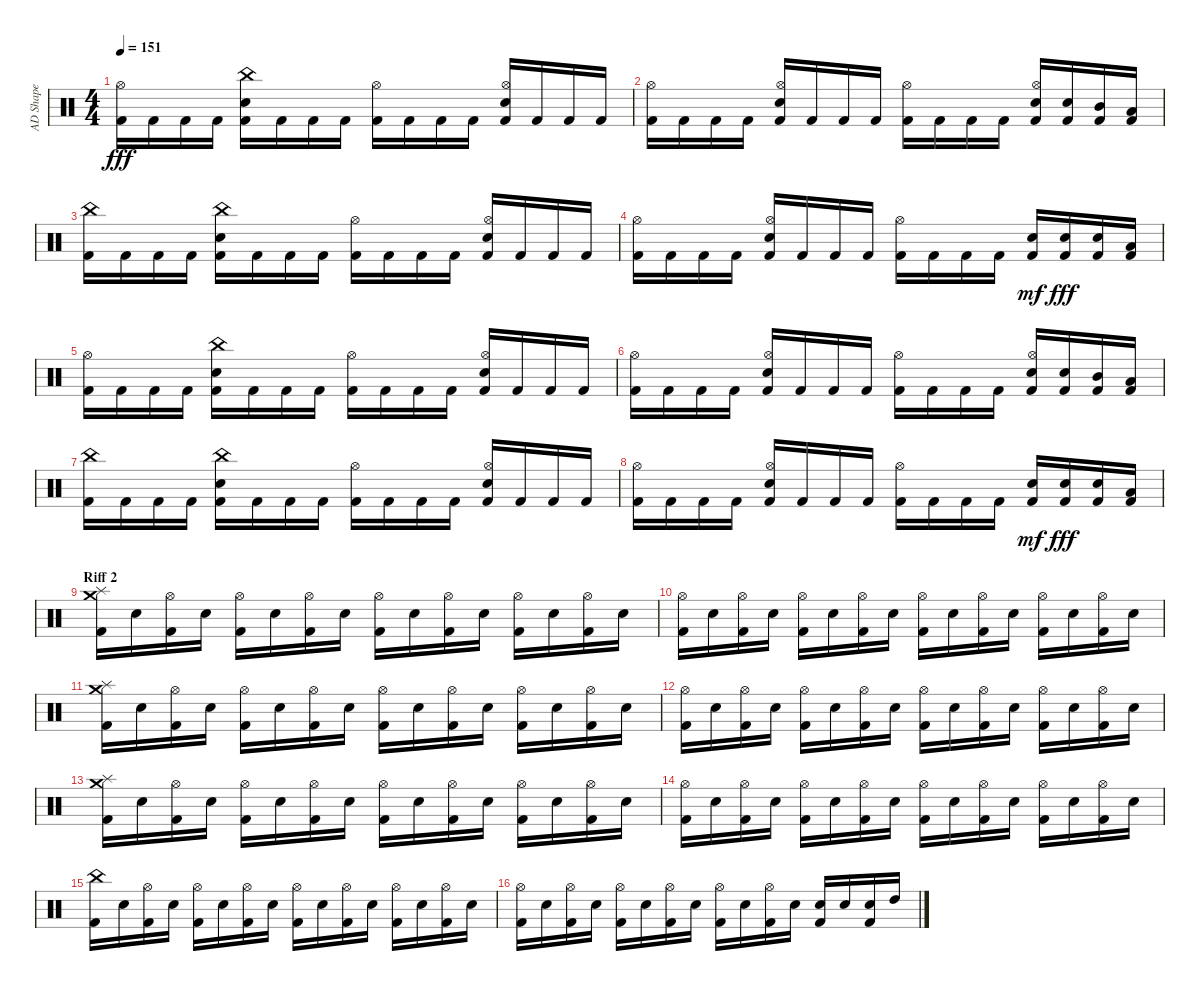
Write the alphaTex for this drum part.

\track ("AD Shape" "AD Shape") {instrument percussion}
\staff {score}
\articulation defaults
\ts (4 4)
\tempo 151
\clef neutral
\ks c
("Kick (hit) 2" "Hi-Hat (open)").16{dy fff} "Kick (hit) 2".16 "Kick (hit) 2".16 "Kick (hit) 2".16 ("Kick (hit) 2" "Snare (hit) 2" "China (hit)").16 "Kick (hit) 2".16 "Kick (hit) 2".16 "Kick (hit) 2".16 ("Kick (hit) 2" "Hi-Hat (open)").16 "Kick (hit) 2".16 "Kick (hit) 2".16 "Kick (hit) 2".16 ("Kick (hit) 2" "Snare (hit) 2" "Hi-Hat (open)").16 "Kick (hit) 2".16 "Kick (hit) 2".16 "Kick (hit) 2".16 |
("Kick (hit) 2" "Hi-Hat (open)").16 "Kick (hit) 2".16 "Kick (hit) 2".16 "Kick (hit) 2".16 ("Kick (hit) 2" "Snare (hit) 2" "Hi-Hat (open)").16 "Kick (hit) 2".16 "Kick (hit) 2".16 "Kick (hit) 2".16 ("Kick (hit) 2" "Hi-Hat (open)").16 "Kick (hit) 2".16 "Kick (hit) 2".16 "Kick (hit) 2".16 ("Kick (hit) 2" "Snare (hit) 2" "Hi-Hat (open)").16 ("Kick (hit) 2" "Snare (hit) 2").16 ("Kick (hit) 2" "Mid Tom (hit)").16 ("Kick (hit) 2" "Low Tom (hit)").16 |
("Kick (hit) 2" "China (hit)").16 "Kick (hit) 2".16 "Kick (hit) 2".16 "Kick (hit) 2".16 ("Kick (hit) 2" "Snare (hit) 2" "China (hit)").16 "Kick (hit) 2".16 "Kick (hit) 2".16 "Kick (hit) 2".16 ("Kick (hit) 2" "Hi-Hat (open)").16 "Kick (hit) 2".16 "Kick (hit) 2".16 "Kick (hit) 2".16 ("Kick (hit) 2" "Snare (hit) 2" "Hi-Hat (open)").16 "Kick (hit) 2".16 "Kick (hit) 2".16 "Kick (hit) 2".16 |
("Kick (hit) 2" "Hi-Hat (open)").16 "Kick (hit) 2".16 "Kick (hit) 2".16 "Kick (hit) 2".16 ("Kick (hit) 2" "Snare (hit) 2" "Hi-Hat (open)").16 "Kick (hit) 2".16 "Kick (hit) 2".16 "Kick (hit) 2".16 ("Kick (hit) 2" "Hi-Hat (open)").16 "Kick (hit) 2".16 "Kick (hit) 2".16 "Kick (hit) 2".16 ("Kick (hit) 2" "Snare (hit) 2").16{dy mf} ("Kick (hit) 2" "Snare (hit) 2").16{dy fff} ("Kick (hit) 2" "Snare (hit) 2").16 ("Kick (hit) 2" "Low Tom (hit)").16 |
("Kick (hit) 2" "Hi-Hat (open)").16 "Kick (hit) 2".16 "Kick (hit) 2".16 "Kick (hit) 2".16 ("Kick (hit) 2" "Snare (hit) 2" "China (hit)").16 "Kick (hit) 2".16 "Kick (hit) 2".16 "Kick (hit) 2".16 ("Kick (hit) 2" "Hi-Hat (open)").16 "Kick (hit) 2".16 "Kick (hit) 2".16 "Kick (hit) 2".16 ("Kick (hit) 2" "Snare (hit) 2" "Hi-Hat (open)").16 "Kick (hit) 2".16 "Kick (hit) 2".16 "Kick (hit) 2".16 |
("Kick (hit) 2" "Hi-Hat (open)").16 "Kick (hit) 2".16 "Kick (hit) 2".16 "Kick (hit) 2".16 ("Kick (hit) 2" "Snare (hit) 2" "Hi-Hat (open)").16 "Kick (hit) 2".16 "Kick (hit) 2".16 "Kick (hit) 2".16 ("Kick (hit) 2" "Hi-Hat (open)").16 "Kick (hit) 2".16 "Kick (hit) 2".16 "Kick (hit) 2".16 ("Kick (hit) 2" "Snare (hit) 2" "Hi-Hat (open)").16 ("Kick (hit) 2" "Snare (hit) 2").16 ("Kick (hit) 2" "Mid Tom (hit)").16 ("Kick (hit) 2" "Low Tom (hit)").16 |
("Kick (hit) 2" "China (hit)").16 "Kick (hit) 2".16 "Kick (hit) 2".16 "Kick (hit) 2".16 ("Kick (hit) 2" "Snare (hit) 2" "China (hit)").16 "Kick (hit) 2".16 "Kick (hit) 2".16 "Kick (hit) 2".16 ("Kick (hit) 2" "Hi-Hat (open)").16 "Kick (hit) 2".16 "Kick (hit) 2".16 "Kick (hit) 2".16 ("Kick (hit) 2" "Snare (hit) 2" "Hi-Hat (open)").16 "Kick (hit) 2".16 "Kick (hit) 2".16 "Kick (hit) 2".16 |
("Kick (hit) 2" "Hi-Hat (open)").16 "Kick (hit) 2".16 "Kick (hit) 2".16 "Kick (hit) 2".16 ("Kick (hit) 2" "Snare (hit) 2" "Hi-Hat (open)").16 "Kick (hit) 2".16 "Kick (hit) 2".16 "Kick (hit) 2".16 ("Kick (hit) 2" "Hi-Hat (open)").16 "Kick (hit) 2".16 "Kick (hit) 2".16 "Kick (hit) 2".16 ("Kick (hit) 2" "Snare (hit) 2").16{dy mf} ("Kick (hit) 2" "Snare (hit) 2").16{dy fff} ("Kick (hit) 2" "Snare (hit) 2").16 ("Kick (hit) 2" "Low Tom (hit)").16 |
\section ("" "Riff 2")
("Kick (hit) 2" "Splash (hit)" "Crash medium (hit)").16 "Snare (hit) 2".16 ("Kick (hit) 2" "Hi-Hat (open)").16 "Snare (hit) 2".16 ("Kick (hit) 2" "Hi-Hat (open)").16 "Snare (hit) 2".16 ("Kick (hit) 2" "Hi-Hat (open)").16 "Snare (hit) 2".16 ("Kick (hit) 2" "Hi-Hat (open)").16 "Snare (hit) 2".16 ("Kick (hit) 2" "Hi-Hat (open)").16 "Snare (hit) 2".16 ("Kick (hit) 2" "Hi-Hat (open)").16 "Snare (hit) 2".16 ("Kick (hit) 2" "Hi-Hat (open)").16 "Snare (hit) 2".16 |
("Kick (hit) 2" "Hi-Hat (open)").16 "Snare (hit) 2".16 ("Kick (hit) 2" "Hi-Hat (open)").16 "Snare (hit) 2".16 ("Kick (hit) 2" "Hi-Hat (open)").16 "Snare (hit) 2".16 ("Kick (hit) 2" "Hi-Hat (open)").16 "Snare (hit) 2".16 ("Kick (hit) 2" "Hi-Hat (open)").16 "Snare (hit) 2".16 ("Kick (hit) 2" "Hi-Hat (open)").16 "Snare (hit) 2".16 ("Kick (hit) 2" "Hi-Hat (open)").16 "Snare (hit) 2".16 ("Kick (hit) 2" "Hi-Hat (open)").16 "Snare (hit) 2".16 |
("Kick (hit) 2" "Splash (hit)" "Crash medium (hit)").16 "Snare (hit) 2".16 ("Kick (hit) 2" "Hi-Hat (open)").16 "Snare (hit) 2".16 ("Kick (hit) 2" "Hi-Hat (open)").16 "Snare (hit) 2".16 ("Kick (hit) 2" "Hi-Hat (open)").16 "Snare (hit) 2".16 ("Kick (hit) 2" "Hi-Hat (open)").16 "Snare (hit) 2".16 ("Kick (hit) 2" "Hi-Hat (open)").16 "Snare (hit) 2".16 ("Kick (hit) 2" "Hi-Hat (open)").16 "Snare (hit) 2".16 ("Kick (hit) 2" "Hi-Hat (open)").16 "Snare (hit) 2".16 |
("Kick (hit) 2" "Hi-Hat (open)").16 "Snare (hit) 2".16 ("Kick (hit) 2" "Hi-Hat (open)").16 "Snare (hit) 2".16 ("Kick (hit) 2" "Hi-Hat (open)").16 "Snare (hit) 2".16 ("Kick (hit) 2" "Hi-Hat (open)").16 "Snare (hit) 2".16 ("Kick (hit) 2" "Hi-Hat (open)").16 "Snare (hit) 2".16 ("Kick (hit) 2" "Hi-Hat (open)").16 "Snare (hit) 2".16 ("Kick (hit) 2" "Hi-Hat (open)").16 "Snare (hit) 2".16 ("Kick (hit) 2" "Hi-Hat (open)").16 "Snare (hit) 2".16 |
("Kick (hit) 2" "Splash (hit)" "Crash medium (hit)").16 "Snare (hit) 2".16 ("Kick (hit) 2" "Hi-Hat (open)").16 "Snare (hit) 2".16 ("Kick (hit) 2" "Hi-Hat (open)").16 "Snare (hit) 2".16 ("Kick (hit) 2" "Hi-Hat (open)").16 "Snare (hit) 2".16 ("Kick (hit) 2" "Hi-Hat (open)").16 "Snare (hit) 2".16 ("Kick (hit) 2" "Hi-Hat (open)").16 "Snare (hit) 2".16 ("Kick (hit) 2" "Hi-Hat (open)").16 "Snare (hit) 2".16 ("Kick (hit) 2" "Hi-Hat (open)").16 "Snare (hit) 2".16 |
("Kick (hit) 2" "Hi-Hat (open)").16 "Snare (hit) 2".16 ("Kick (hit) 2" "Hi-Hat (open)").16 "Snare (hit) 2".16 ("Kick (hit) 2" "Hi-Hat (open)").16 "Snare (hit) 2".16 ("Kick (hit) 2" "Hi-Hat (open)").16 "Snare (hit) 2".16 ("Kick (hit) 2" "Hi-Hat (open)").16 "Snare (hit) 2".16 ("Kick (hit) 2" "Hi-Hat (open)").16 "Snare (hit) 2".16 ("Kick (hit) 2" "Hi-Hat (open)").16 "Snare (hit) 2".16 ("Kick (hit) 2" "Hi-Hat (open)").16 "Snare (hit) 2".16 |
("Kick (hit) 2" "China (hit)").16 "Snare (hit) 2".16 ("Kick (hit) 2" "Hi-Hat (open)").16 "Snare (hit) 2".16 ("Kick (hit) 2" "Hi-Hat (open)").16 "Snare (hit) 2".16 ("Kick (hit) 2" "Hi-Hat (open)").16 "Snare (hit) 2".16 ("Kick (hit) 2" "Hi-Hat (open)").16 "Snare (hit) 2".16 ("Kick (hit) 2" "Hi-Hat (open)").16 "Snare (hit) 2".16 ("Kick (hit) 2" "Hi-Hat (open)").16 "Snare (hit) 2".16 ("Kick (hit) 2" "Hi-Hat (open)").16 "Snare (hit) 2".16 |
("Kick (hit) 2" "Hi-Hat (open)").16 "Snare (hit) 2".16 ("Kick (hit) 2" "Hi-Hat (open)").16 "Snare (hit) 2".16 ("Kick (hit) 2" "Hi-Hat (open)").16 "Snare (hit) 2".16 ("Kick (hit) 2" "Hi-Hat (open)").16 "Snare (hit) 2".16 ("Kick (hit) 2" "Hi-Hat (open)").16 "Snare (hit) 2".16 ("Kick (hit) 2" "Hi-Hat (open)").16 "Snare (hit) 2".16 ("Kick (hit) 2" "Snare (hit) 2").16 "Snare (hit) 2".16 ("Kick (hit) 2" "Snare (hit) 2").16 "High Tom (hit)".16
